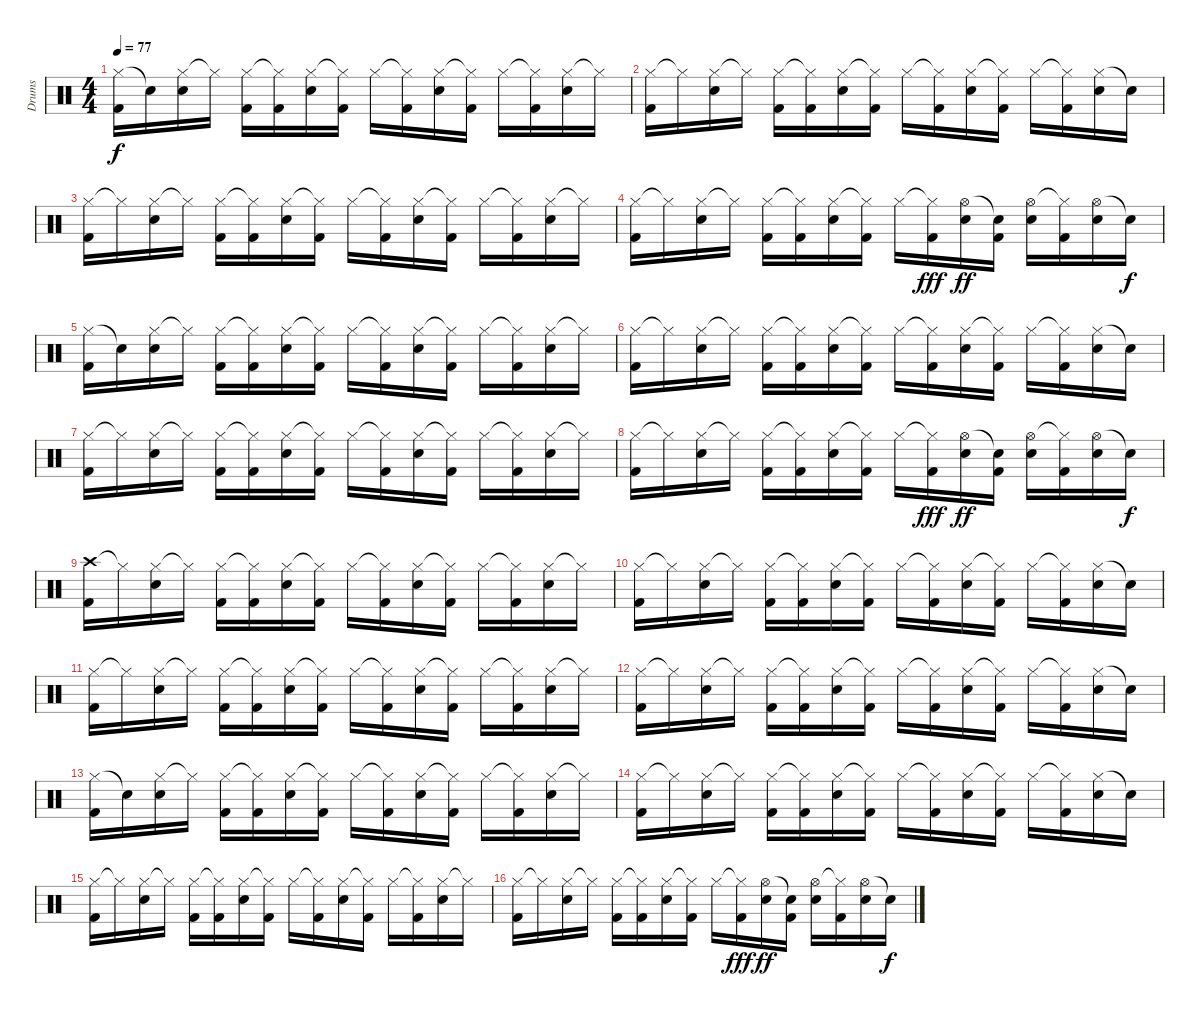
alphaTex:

\track ("Drums" "Drums") {instrument percussion}
\staff {score}
\articulation defaults
\ts (4 4)
\tempo 77
\clef neutral
\ks c
("Hi-Hat (closed)" "Kick (hit) 2").16{dy f} "Snare (hit)"{t}.16 ("Hi-Hat (closed)" "Electric Snare (hit)").16 "Hi-Hat (closed)"{t}.16 ("Hi-Hat (closed)" "Kick (hit) 2").16 ("Hi-Hat (closed)"{t} "Kick (hit) 2").16 ("Hi-Hat (closed)" "Electric Snare (hit)").16 ("Hi-Hat (closed)"{t} "Kick (hit) 2").16 "Hi-Hat (closed)".16 ("Hi-Hat (closed)"{t} "Kick (hit) 2").16 ("Hi-Hat (closed)" "Electric Snare (hit)").16 ("Hi-Hat (closed)"{t} "Kick (hit) 2").16 "Hi-Hat (closed)".16 ("Hi-Hat (closed)"{t} "Kick (hit) 2").16 ("Hi-Hat (closed)" "Electric Snare (hit)").16 "Hi-Hat (closed)"{t}.16 |
("Hi-Hat (closed)" "Kick (hit) 2").16 "Hi-Hat (closed)"{t}.16 ("Hi-Hat (closed)" "Electric Snare (hit)").16 "Hi-Hat (closed)"{t}.16 ("Hi-Hat (closed)" "Kick (hit) 2").16 ("Hi-Hat (closed)"{t} "Kick (hit) 2").16 ("Hi-Hat (closed)" "Electric Snare (hit)").16 ("Hi-Hat (closed)"{t} "Kick (hit) 2").16 "Hi-Hat (closed)".16 ("Hi-Hat (closed)"{t} "Kick (hit) 2").16 ("Hi-Hat (closed)" "Electric Snare (hit)").16 ("Hi-Hat (closed)"{t} "Kick (hit) 2").16 "Hi-Hat (closed)".16 ("Hi-Hat (closed)"{t} "Kick (hit) 2").16 ("Hi-Hat (closed)" "Electric Snare (hit)").16 "Snare (hit)"{t}.16 |
("Hi-Hat (closed)" "Kick (hit) 2").16 "Hi-Hat (closed)"{t}.16 ("Hi-Hat (closed)" "Electric Snare (hit)").16 "Hi-Hat (closed)"{t}.16 ("Hi-Hat (closed)" "Kick (hit) 2").16 ("Hi-Hat (closed)"{t} "Kick (hit) 2").16 ("Hi-Hat (closed)" "Electric Snare (hit)").16 ("Hi-Hat (closed)"{t} "Kick (hit) 2").16 "Hi-Hat (closed)".16 ("Hi-Hat (closed)"{t} "Kick (hit) 2").16 ("Hi-Hat (closed)" "Electric Snare (hit)").16 ("Hi-Hat (closed)"{t} "Kick (hit) 2").16 "Hi-Hat (closed)".16 ("Hi-Hat (closed)"{t} "Kick (hit) 2").16 ("Hi-Hat (closed)" "Electric Snare (hit)").16 "Hi-Hat (closed)"{t}.16 |
("Hi-Hat (closed)" "Kick (hit) 2").16 "Hi-Hat (closed)"{t}.16 ("Hi-Hat (closed)" "Electric Snare (hit)").16 "Hi-Hat (closed)"{t}.16 ("Hi-Hat (closed)" "Kick (hit) 2").16 ("Hi-Hat (closed)"{t} "Kick (hit) 2").16 ("Hi-Hat (closed)" "Electric Snare (hit)").16 ("Hi-Hat (closed)"{t} "Kick (hit) 2").16 "Hi-Hat (closed)".16 ("Hi-Hat (closed)"{t} "Kick (hit) 2").16{dy fff} ("Hi-Hat (open)" "Electric Snare (hit)").16{dy ff} ("Snare (hit)"{t} "Kick (hit) 2").16 ("Hi-Hat (open)" "Electric Snare (hit)").16 ("Hi-Hat (closed)"{t} "Kick (hit) 2").16 ("Hi-Hat (open)" "Electric Snare (hit)").16 "Snare (hit)"{t}.16{dy f} |
("Hi-Hat (closed)" "Kick (hit) 2").16 "Snare (hit)"{t}.16 ("Hi-Hat (closed)" "Electric Snare (hit)").16 "Hi-Hat (closed)"{t}.16 ("Hi-Hat (closed)" "Kick (hit) 2").16 ("Hi-Hat (closed)"{t} "Kick (hit) 2").16 ("Hi-Hat (closed)" "Electric Snare (hit)").16 ("Hi-Hat (closed)"{t} "Kick (hit) 2").16 "Hi-Hat (closed)".16 ("Hi-Hat (closed)"{t} "Kick (hit) 2").16 ("Hi-Hat (closed)" "Electric Snare (hit)").16 ("Hi-Hat (closed)"{t} "Kick (hit) 2").16 "Hi-Hat (closed)".16 ("Hi-Hat (closed)"{t} "Kick (hit) 2").16 ("Hi-Hat (closed)" "Electric Snare (hit)").16 "Hi-Hat (closed)"{t}.16 |
("Hi-Hat (closed)" "Kick (hit) 2").16 "Hi-Hat (closed)"{t}.16 ("Hi-Hat (closed)" "Electric Snare (hit)").16 "Hi-Hat (closed)"{t}.16 ("Hi-Hat (closed)" "Kick (hit) 2").16 ("Hi-Hat (closed)"{t} "Kick (hit) 2").16 ("Hi-Hat (closed)" "Electric Snare (hit)").16 ("Hi-Hat (closed)"{t} "Kick (hit) 2").16 "Hi-Hat (closed)".16 ("Hi-Hat (closed)"{t} "Kick (hit) 2").16 ("Hi-Hat (closed)" "Electric Snare (hit)").16 ("Hi-Hat (closed)"{t} "Kick (hit) 2").16 "Hi-Hat (closed)".16 ("Hi-Hat (closed)"{t} "Kick (hit) 2").16 ("Hi-Hat (closed)" "Electric Snare (hit)").16 "Snare (hit)"{t}.16 |
("Hi-Hat (closed)" "Kick (hit) 2").16 "Hi-Hat (closed)"{t}.16 ("Hi-Hat (closed)" "Electric Snare (hit)").16 "Hi-Hat (closed)"{t}.16 ("Hi-Hat (closed)" "Kick (hit) 2").16 ("Hi-Hat (closed)"{t} "Kick (hit) 2").16 ("Hi-Hat (closed)" "Electric Snare (hit)").16 ("Hi-Hat (closed)"{t} "Kick (hit) 2").16 "Hi-Hat (closed)".16 ("Hi-Hat (closed)"{t} "Kick (hit) 2").16 ("Hi-Hat (closed)" "Electric Snare (hit)").16 ("Hi-Hat (closed)"{t} "Kick (hit) 2").16 "Hi-Hat (closed)".16 ("Hi-Hat (closed)"{t} "Kick (hit) 2").16 ("Hi-Hat (closed)" "Electric Snare (hit)").16 "Hi-Hat (closed)"{t}.16 |
("Hi-Hat (closed)" "Kick (hit) 2").16 "Hi-Hat (closed)"{t}.16 ("Hi-Hat (closed)" "Electric Snare (hit)").16 "Hi-Hat (closed)"{t}.16 ("Hi-Hat (closed)" "Kick (hit) 2").16 ("Hi-Hat (closed)"{t} "Kick (hit) 2").16 ("Hi-Hat (closed)" "Electric Snare (hit)").16 ("Hi-Hat (closed)"{t} "Kick (hit) 2").16 "Hi-Hat (closed)".16 ("Hi-Hat (closed)"{t} "Kick (hit) 2").16{dy fff} ("Hi-Hat (open)" "Electric Snare (hit)").16{dy ff} ("Snare (hit)"{t} "Kick (hit) 2").16 ("Hi-Hat (open)" "Electric Snare (hit)").16 ("Hi-Hat (closed)"{t} "Kick (hit) 2").16 ("Hi-Hat (open)" "Electric Snare (hit)").16 "Snare (hit)"{t}.16{dy f} |
("Crash high (hit)" "Kick (hit) 2").16 "Hi-Hat (closed)"{t}.16 ("Hi-Hat (closed)" "Electric Snare (hit)").16 "Hi-Hat (closed)"{t}.16 ("Hi-Hat (closed)" "Kick (hit) 2").16 ("Hi-Hat (closed)"{t} "Kick (hit) 2").16 ("Hi-Hat (closed)" "Electric Snare (hit)").16 ("Hi-Hat (closed)"{t} "Kick (hit) 2").16 "Hi-Hat (closed)".16 ("Hi-Hat (closed)"{t} "Kick (hit) 2").16 ("Hi-Hat (closed)" "Electric Snare (hit)").16 ("Hi-Hat (closed)"{t} "Kick (hit) 2").16 "Hi-Hat (closed)".16 ("Hi-Hat (closed)"{t} "Kick (hit) 2").16 ("Hi-Hat (closed)" "Electric Snare (hit)").16 "Hi-Hat (closed)"{t}.16 |
("Hi-Hat (closed)" "Kick (hit) 2").16 "Hi-Hat (closed)"{t}.16 ("Hi-Hat (closed)" "Electric Snare (hit)").16 "Hi-Hat (closed)"{t}.16 ("Hi-Hat (closed)" "Kick (hit) 2").16 ("Hi-Hat (closed)"{t} "Kick (hit) 2").16 ("Hi-Hat (closed)" "Electric Snare (hit)").16 ("Hi-Hat (closed)"{t} "Kick (hit) 2").16 "Hi-Hat (closed)".16 ("Hi-Hat (closed)"{t} "Kick (hit) 2").16 ("Hi-Hat (closed)" "Electric Snare (hit)").16 ("Hi-Hat (closed)"{t} "Kick (hit) 2").16 "Hi-Hat (closed)".16 ("Hi-Hat (closed)"{t} "Kick (hit) 2").16 ("Hi-Hat (closed)" "Electric Snare (hit)").16 "Snare (hit)"{t}.16 |
("Hi-Hat (closed)" "Kick (hit) 2").16 "Hi-Hat (closed)"{t}.16 ("Hi-Hat (closed)" "Electric Snare (hit)").16 "Hi-Hat (closed)"{t}.16 ("Hi-Hat (closed)" "Kick (hit) 2").16 ("Hi-Hat (closed)"{t} "Kick (hit) 2").16 ("Hi-Hat (closed)" "Electric Snare (hit)").16 ("Hi-Hat (closed)"{t} "Kick (hit) 2").16 "Hi-Hat (closed)".16 ("Hi-Hat (closed)"{t} "Kick (hit) 2").16 ("Hi-Hat (closed)" "Electric Snare (hit)").16 ("Hi-Hat (closed)"{t} "Kick (hit) 2").16 "Hi-Hat (closed)".16 ("Hi-Hat (closed)"{t} "Kick (hit) 2").16 ("Hi-Hat (closed)" "Electric Snare (hit)").16 "Hi-Hat (closed)"{t}.16 |
("Hi-Hat (closed)" "Kick (hit) 2").16 "Hi-Hat (closed)"{t}.16 ("Hi-Hat (closed)" "Electric Snare (hit)").16 "Hi-Hat (closed)"{t}.16 ("Hi-Hat (closed)" "Kick (hit) 2").16 ("Hi-Hat (closed)"{t} "Kick (hit) 2").16 ("Hi-Hat (closed)" "Electric Snare (hit)").16 ("Hi-Hat (closed)"{t} "Kick (hit) 2").16 "Hi-Hat (closed)".16 ("Hi-Hat (closed)"{t} "Kick (hit) 2").16 ("Hi-Hat (closed)" "Electric Snare (hit)").16 ("Hi-Hat (closed)"{t} "Kick (hit) 2").16 "Hi-Hat (closed)".16 ("Hi-Hat (closed)"{t} "Kick (hit) 2").16 ("Hi-Hat (closed)" "Electric Snare (hit)").16 "Snare (hit)"{t}.16 |
("Hi-Hat (closed)" "Kick (hit) 2").16 "Snare (hit)"{t}.16 ("Hi-Hat (closed)" "Electric Snare (hit)").16 "Hi-Hat (closed)"{t}.16 ("Hi-Hat (closed)" "Kick (hit) 2").16 ("Hi-Hat (closed)"{t} "Kick (hit) 2").16 ("Hi-Hat (closed)" "Electric Snare (hit)").16 ("Hi-Hat (closed)"{t} "Kick (hit) 2").16 "Hi-Hat (closed)".16 ("Hi-Hat (closed)"{t} "Kick (hit) 2").16 ("Hi-Hat (closed)" "Electric Snare (hit)").16 ("Hi-Hat (closed)"{t} "Kick (hit) 2").16 "Hi-Hat (closed)".16 ("Hi-Hat (closed)"{t} "Kick (hit) 2").16 ("Hi-Hat (closed)" "Electric Snare (hit)").16 "Hi-Hat (closed)"{t}.16 |
("Hi-Hat (closed)" "Kick (hit) 2").16 "Hi-Hat (closed)"{t}.16 ("Hi-Hat (closed)" "Electric Snare (hit)").16 "Hi-Hat (closed)"{t}.16 ("Hi-Hat (closed)" "Kick (hit) 2").16 ("Hi-Hat (closed)"{t} "Kick (hit) 2").16 ("Hi-Hat (closed)" "Electric Snare (hit)").16 ("Hi-Hat (closed)"{t} "Kick (hit) 2").16 "Hi-Hat (closed)".16 ("Hi-Hat (closed)"{t} "Kick (hit) 2").16 ("Hi-Hat (closed)" "Electric Snare (hit)").16 ("Hi-Hat (closed)"{t} "Kick (hit) 2").16 "Hi-Hat (closed)".16 ("Hi-Hat (closed)"{t} "Kick (hit) 2").16 ("Hi-Hat (closed)" "Electric Snare (hit)").16 "Snare (hit)"{t}.16 |
("Hi-Hat (closed)" "Kick (hit) 2").16 "Hi-Hat (closed)"{t}.16 ("Hi-Hat (closed)" "Electric Snare (hit)").16 "Hi-Hat (closed)"{t}.16 ("Hi-Hat (closed)" "Kick (hit) 2").16 ("Hi-Hat (closed)"{t} "Kick (hit) 2").16 ("Hi-Hat (closed)" "Electric Snare (hit)").16 ("Hi-Hat (closed)"{t} "Kick (hit) 2").16 "Hi-Hat (closed)".16 ("Hi-Hat (closed)"{t} "Kick (hit) 2").16 ("Hi-Hat (closed)" "Electric Snare (hit)").16 ("Hi-Hat (closed)"{t} "Kick (hit) 2").16 "Hi-Hat (closed)".16 ("Hi-Hat (closed)"{t} "Kick (hit) 2").16 ("Hi-Hat (closed)" "Electric Snare (hit)").16 "Hi-Hat (closed)"{t}.16 |
("Hi-Hat (closed)" "Kick (hit) 2").16 "Hi-Hat (closed)"{t}.16 ("Hi-Hat (closed)" "Electric Snare (hit)").16 "Hi-Hat (closed)"{t}.16 ("Hi-Hat (closed)" "Kick (hit) 2").16 ("Hi-Hat (closed)"{t} "Kick (hit) 2").16 ("Hi-Hat (closed)" "Electric Snare (hit)").16 ("Hi-Hat (closed)"{t} "Kick (hit) 2").16 "Hi-Hat (closed)".16 ("Hi-Hat (closed)"{t} "Kick (hit) 2").16{dy fff} ("Hi-Hat (open)" "Electric Snare (hit)").16{dy ff} ("Snare (hit)"{t} "Kick (hit) 2").16 ("Hi-Hat (open)" "Electric Snare (hit)").16 ("Hi-Hat (closed)"{t} "Kick (hit) 2").16 ("Hi-Hat (open)" "Electric Snare (hit)").16 "Snare (hit)"{t}.16{dy f}
